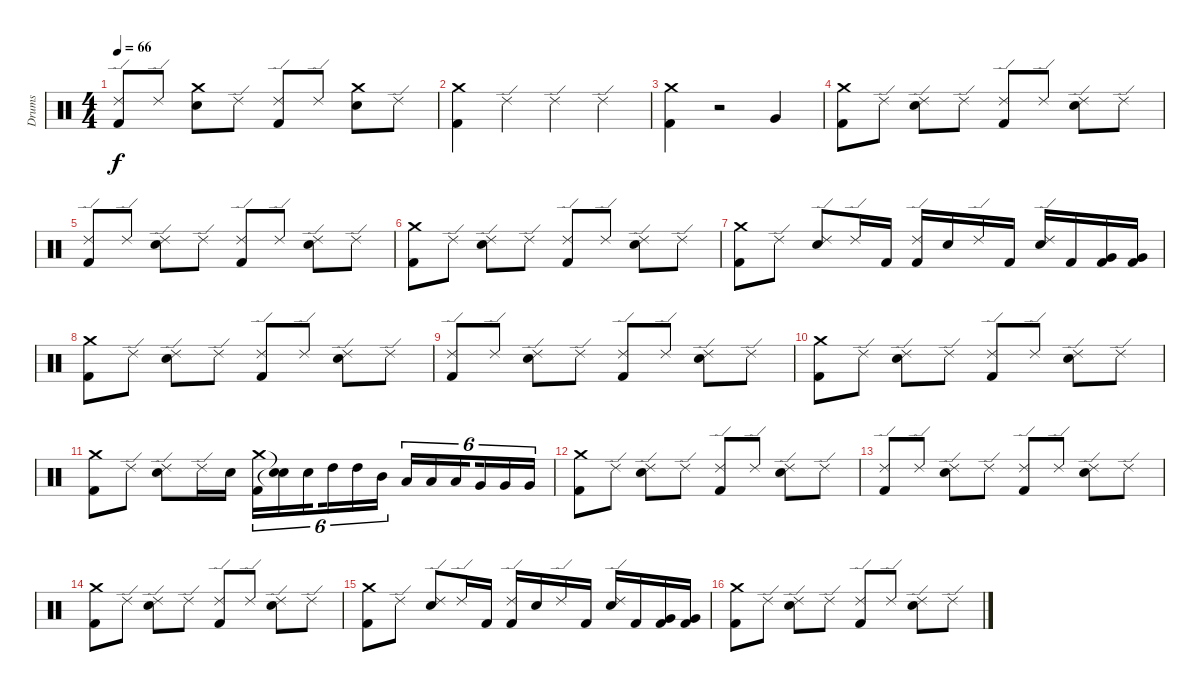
\track ("Drums" "Drums") {instrument percussion}
\staff {score}
\articulation defaults
\ts (4 4)
\tempo 66
\clef neutral
\ks c
("Ride (edge) 2" "Kick (hit) 2").8{dy f} "Ride (edge) 2".8 ("Crash medium (hit)" "Snare (hit) 2").8 "Ride (edge) 2".8 ("Ride (edge) 2" "Kick (hit) 2").8 "Ride (edge) 2".8 ("Crash medium (hit)" "Snare (hit) 2").8 "Ride (edge) 2".8 |
("Crash medium (hit)" "Kick (hit) 2").4 "Ride (edge) 2".4 "Ride (edge) 2".4 "Ride (edge) 2".4 |
("Crash medium (hit)" "Kick (hit) 2").4 r.2 "Very Low Tom (hit)".4 |
("Kick (hit) 2" "Crash medium (hit)").8 "Ride (edge) 2".8 ("Snare (hit) 2" "Ride (edge) 2").8 "Ride (edge) 2".8 ("Kick (hit) 2" "Ride (edge) 2").8 "Ride (edge) 2".8 ("Snare (hit) 2" "Ride (edge) 2").8 "Ride (edge) 2".8 |
("Ride (edge) 2" "Kick (hit) 2").8 "Ride (edge) 2".8 ("Ride (edge) 2" "Snare (hit) 2").8 "Ride (edge) 2".8 ("Ride (edge) 2" "Kick (hit) 2").8 "Ride (edge) 2".8 ("Ride (edge) 2" "Snare (hit) 2").8 "Ride (edge) 2".8 |
("Crash medium (hit)" "Kick (hit) 2").8 "Ride (edge) 2".8 ("Ride (edge) 2" "Snare (hit) 2").8 "Ride (edge) 2".8 ("Ride (edge) 2" "Kick (hit) 2").8 "Ride (edge) 2".8 ("Ride (edge) 2" "Snare (hit) 2").8 "Ride (edge) 2".8 |
("Kick (hit) 2" "Crash medium (hit)").8 "Ride (edge) 2".8 ("Snare (hit) 2" "Ride (edge) 2").8 "Ride (edge) 2".16 "Kick (hit) 2".16 ("Kick (hit) 2" "Ride (edge) 2").16 "Snare (hit) 2".16 "Ride (edge) 2".16 "Kick (hit) 2".16 ("Snare (hit) 2" "Ride (edge) 2").16 "Kick (hit) 2".16 ("Kick (hit) 2" "Very Low Tom (hit)").16 ("Kick (hit) 2" "Very Low Tom (hit)").16 |
("Kick (hit) 2" "Crash medium (hit)").8 "Ride (edge) 2".8 ("Snare (hit) 2" "Ride (edge) 2").8 "Ride (edge) 2".8 ("Kick (hit) 2" "Ride (edge) 2").8 "Ride (edge) 2".8 ("Snare (hit) 2" "Ride (edge) 2").8 "Ride (edge) 2".8 |
("Ride (edge) 2" "Kick (hit) 2").8 "Ride (edge) 2".8 ("Ride (edge) 2" "Snare (hit) 2").8 "Ride (edge) 2".8 ("Ride (edge) 2" "Kick (hit) 2").8 "Ride (edge) 2".8 ("Ride (edge) 2" "Snare (hit) 2").8 "Ride (edge) 2".8 |
("Crash medium (hit)" "Kick (hit) 2").8 "Ride (edge) 2".8 ("Ride (edge) 2" "Snare (hit) 2").8 "Ride (edge) 2".8 ("Ride (edge) 2" "Kick (hit) 2").8 "Ride (edge) 2".8 ("Ride (edge) 2" "Snare (hit) 2").8 "Ride (edge) 2".8 |
("Crash medium (hit)" "Kick (hit) 2").8 "Ride (edge) 2".8 ("Snare (hit) 2" "Ride (edge) 2").8 "Ride (edge) 2".16 "Snare (hit) 2".16 ("Crash medium (hit)" "Kick (hit) 2").16{tu (6 4)} ("Snare (hit)"{t} "Snare (hit)"{t}).16{tu (6 4)} "Snare (hit) 2".16{tu (6 4) beam splitsecondary} "High Tom (hit)".16{tu (6 4)} "High Tom (hit)".16{tu (6 4)} "Mid Tom (hit)".16{tu (6 4)} "Low Tom (hit)".16{tu (6 4)} "Low Tom (hit)".16{tu (6 4)} "Low Tom (hit)".16{tu (6 4) beam splitsecondary} "Very Low Tom (hit)".16{tu (6 4)} "Very Low Tom (hit)".16{tu (6 4)} "Very Low Tom (hit)".16{tu (6 4)} |
("Kick (hit) 2" "Crash medium (hit)").8 "Ride (edge) 2".8 ("Snare (hit) 2" "Ride (edge) 2").8 "Ride (edge) 2".8 ("Kick (hit) 2" "Ride (edge) 2").8 "Ride (edge) 2".8 ("Snare (hit) 2" "Ride (edge) 2").8 "Ride (edge) 2".8 |
("Ride (edge) 2" "Kick (hit) 2").8 "Ride (edge) 2".8 ("Ride (edge) 2" "Snare (hit) 2").8 "Ride (edge) 2".8 ("Ride (edge) 2" "Kick (hit) 2").8 "Ride (edge) 2".8 ("Ride (edge) 2" "Snare (hit) 2").8 "Ride (edge) 2".8 |
("Crash medium (hit)" "Kick (hit) 2").8 "Ride (edge) 2".8 ("Ride (edge) 2" "Snare (hit) 2").8 "Ride (edge) 2".8 ("Ride (edge) 2" "Kick (hit) 2").8 "Ride (edge) 2".8 ("Ride (edge) 2" "Snare (hit) 2").8 "Ride (edge) 2".8 |
("Kick (hit) 2" "Crash medium (hit)").8 "Ride (edge) 2".8 ("Snare (hit) 2" "Ride (edge) 2").8 "Ride (edge) 2".16 "Kick (hit) 2".16 ("Kick (hit) 2" "Ride (edge) 2").16 "Snare (hit) 2".16 "Ride (edge) 2".16 "Kick (hit) 2".16 ("Snare (hit) 2" "Ride (edge) 2").16 "Kick (hit) 2".16 ("Kick (hit) 2" "Very Low Tom (hit)").16 ("Kick (hit) 2" "Very Low Tom (hit)").16 |
("Kick (hit) 2" "Crash medium (hit)").8 "Ride (edge) 2".8 ("Snare (hit) 2" "Ride (edge) 2").8 "Ride (edge) 2".8 ("Kick (hit) 2" "Ride (edge) 2").8 "Ride (edge) 2".8 ("Snare (hit) 2" "Ride (edge) 2").8 "Ride (edge) 2".8
